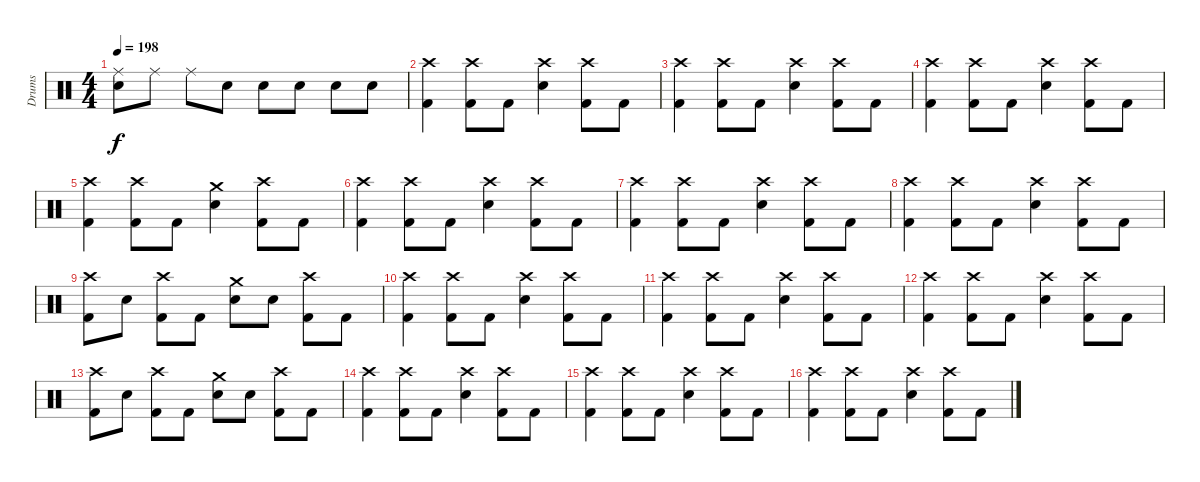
\track ("Drums" "Drums") {instrument percussion}
\staff {score}
\articulation defaults
\ts (4 4)
\tempo 198
\clef neutral
\ks c
("Ride (middle)" "Electric Snare (hit)").8{dy f} "Ride (middle)".8 "Ride (middle)".8 "Electric Snare (hit)".8 "Electric Snare (hit)".8 "Electric Snare (hit)".8 "Electric Snare (hit)".8 "Electric Snare (hit)".8 |
("Crash high (hit)" "Kick (hit) 2").4 ("Crash high (hit)" "Kick (hit) 2").8 "Kick (hit) 2".8 ("Crash high (hit)" "Electric Snare (hit)").4 ("Crash high (hit)" "Kick (hit) 2").8 "Kick (hit) 2".8 |
("Crash high (hit)" "Kick (hit) 2").4 ("Crash high (hit)" "Kick (hit) 2").8 "Kick (hit) 2".8 ("Crash high (hit)" "Electric Snare (hit)").4 ("Crash high (hit)" "Kick (hit) 2").8 "Kick (hit) 2".8 |
("Crash high (hit)" "Kick (hit) 2").4 ("Crash high (hit)" "Kick (hit) 2").8 "Kick (hit) 2".8 ("Crash high (hit)" "Electric Snare (hit)").4 ("Crash high (hit)" "Kick (hit) 2").8 "Kick (hit) 2".8 |
("Crash high (hit)" "Kick (hit) 2").4 ("Crash high (hit)" "Kick (hit) 2").8 "Kick (hit) 2".8 ("Crash medium (hit)" "Electric Snare (hit)").4 ("Crash high (hit)" "Kick (hit) 2").8 "Kick (hit) 2".8 |
("Crash high (hit)" "Kick (hit) 2").4 ("Crash high (hit)" "Kick (hit) 2").8 "Kick (hit) 2".8 ("Crash high (hit)" "Electric Snare (hit)").4 ("Crash high (hit)" "Kick (hit) 2").8 "Kick (hit) 2".8 |
("Crash high (hit)" "Kick (hit) 2").4 ("Crash high (hit)" "Kick (hit) 2").8 "Kick (hit) 2".8 ("Crash high (hit)" "Electric Snare (hit)").4 ("Crash high (hit)" "Kick (hit) 2").8 "Kick (hit) 2".8 |
("Crash high (hit)" "Kick (hit) 2").4 ("Crash high (hit)" "Kick (hit) 2").8 "Kick (hit) 2".8 ("Crash high (hit)" "Electric Snare (hit)").4 ("Crash high (hit)" "Kick (hit) 2").8 "Kick (hit) 2".8 |
("Crash high (hit)" "Kick (hit) 2").8 "Electric Snare (hit)".8 ("Crash high (hit)" "Kick (hit) 2").8 "Kick (hit) 2".8 ("Crash medium (hit)" "Electric Snare (hit)").8 "Electric Snare (hit)".8 ("Crash high (hit)" "Kick (hit) 2").8 "Kick (hit) 2".8 |
("Crash high (hit)" "Kick (hit) 2").4 ("Crash high (hit)" "Kick (hit) 2").8 "Kick (hit) 2".8 ("Crash high (hit)" "Electric Snare (hit)").4 ("Crash high (hit)" "Kick (hit) 2").8 "Kick (hit) 2".8 |
("Crash high (hit)" "Kick (hit) 2").4 ("Crash high (hit)" "Kick (hit) 2").8 "Kick (hit) 2".8 ("Crash high (hit)" "Electric Snare (hit)").4 ("Crash high (hit)" "Kick (hit) 2").8 "Kick (hit) 2".8 |
("Crash high (hit)" "Kick (hit) 2").4 ("Crash high (hit)" "Kick (hit) 2").8 "Kick (hit) 2".8 ("Crash high (hit)" "Electric Snare (hit)").4 ("Crash high (hit)" "Kick (hit) 2").8 "Kick (hit) 2".8 |
("Crash high (hit)" "Kick (hit) 2").8 "Electric Snare (hit)".8 ("Crash high (hit)" "Kick (hit) 2").8 "Kick (hit) 2".8 ("Crash medium (hit)" "Electric Snare (hit)").8 "Electric Snare (hit)".8 ("Crash high (hit)" "Kick (hit) 2").8 "Kick (hit) 2".8 |
("Crash high (hit)" "Kick (hit) 2").4 ("Crash high (hit)" "Kick (hit) 2").8 "Kick (hit) 2".8 ("Crash high (hit)" "Electric Snare (hit)").4 ("Crash high (hit)" "Kick (hit) 2").8 "Kick (hit) 2".8 |
("Crash high (hit)" "Kick (hit) 2").4 ("Crash high (hit)" "Kick (hit) 2").8 "Kick (hit) 2".8 ("Crash high (hit)" "Electric Snare (hit)").4 ("Crash high (hit)" "Kick (hit) 2").8 "Kick (hit) 2".8 |
("Crash high (hit)" "Kick (hit) 2").4 ("Crash high (hit)" "Kick (hit) 2").8 "Kick (hit) 2".8 ("Crash high (hit)" "Electric Snare (hit)").4 ("Crash high (hit)" "Kick (hit) 2").8 "Kick (hit) 2".8
